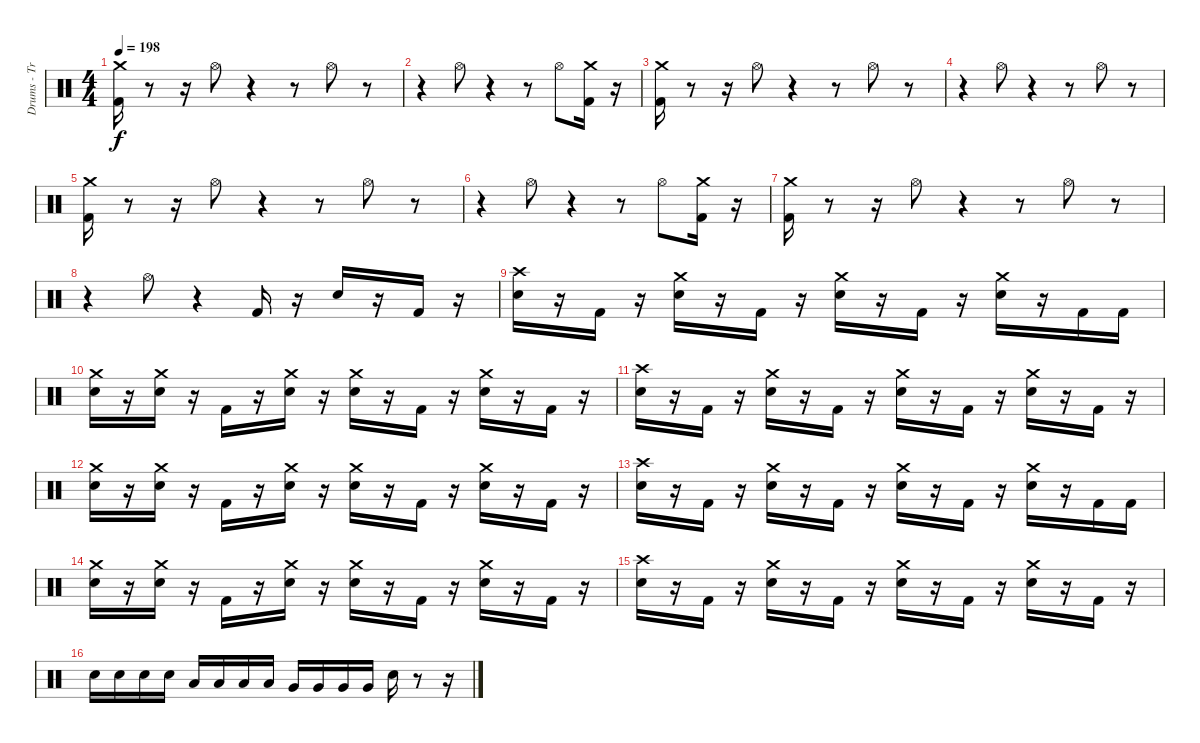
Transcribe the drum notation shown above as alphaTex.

\track ("Drums - Travis" "Drums - Tr") {instrument percussion}
\staff {score}
\articulation defaults
\ts (4 4)
\tempo 198
\clef neutral
\ks c
("Kick (hit) 2" "Crash medium (hit)").16{dy f} r.8 r.16 "Hi-Hat (open)".8 r.4 r.8 "Hi-Hat (open)".8 r.8 |
r.4 "Hi-Hat (open)".8 r.4 r.8 "Hi-Hat (open)".8 ("Kick (hit) 2" "Crash medium (hit)").16 r.16 |
("Kick (hit) 2" "Crash medium (hit)").16 r.8 r.16 "Hi-Hat (open)".8 r.4 r.8 "Hi-Hat (open)".8 r.8 |
r.4 "Hi-Hat (open)".8 r.4 r.8 "Hi-Hat (open)".8 r.8 |
("Kick (hit) 2" "Crash medium (hit)").16 r.8 r.16 "Hi-Hat (open)".8 r.4 r.8 "Hi-Hat (open)".8 r.8 |
r.4 "Hi-Hat (open)".8 r.4 r.8 "Hi-Hat (open)".8 ("Kick (hit) 2" "Crash medium (hit)").16 r.16 |
("Kick (hit) 2" "Crash medium (hit)").16 r.8 r.16 "Hi-Hat (open)".8 r.4 r.8 "Hi-Hat (open)".8 r.8 |
r.4 "Hi-Hat (open)".8 r.4 "Kick (hit) 2".16 r.16 "Electric Snare (hit)".16 r.16 "Kick (hit) 2".16 r.16 |
("Electric Snare (hit)" "Crash high (hit)").16 r.16 "Kick (hit) 2".16 r.16 ("Electric Snare (hit)" "Crash medium (hit)").16 r.16 "Kick (hit) 2".16 r.16 ("Electric Snare (hit)" "Crash medium (hit)").16 r.16 "Kick (hit) 2".16 r.16 ("Electric Snare (hit)" "Crash medium (hit)").16 r.16 "Kick (hit) 2".16 "Kick (hit) 2".16 |
("Electric Snare (hit)" "Crash medium (hit)").16 r.16 ("Electric Snare (hit)" "Crash medium (hit)").16 r.16 "Kick (hit) 2".16 r.16 ("Electric Snare (hit)" "Crash medium (hit)").16 r.16 ("Electric Snare (hit)" "Crash medium (hit)").16 r.16 "Kick (hit) 2".16 r.16 ("Electric Snare (hit)" "Crash medium (hit)").16 r.16 "Kick (hit) 2".16 r.16 |
("Electric Snare (hit)" "Crash high (hit)").16 r.16 "Kick (hit) 2".16 r.16 ("Electric Snare (hit)" "Crash medium (hit)").16 r.16 "Kick (hit) 2".16 r.16 ("Electric Snare (hit)" "Crash medium (hit)").16 r.16 "Kick (hit) 2".16 r.16 ("Electric Snare (hit)" "Crash medium (hit)").16 r.16 "Kick (hit) 2".16 r.16 |
("Electric Snare (hit)" "Crash medium (hit)").16 r.16 ("Electric Snare (hit)" "Crash medium (hit)").16 r.16 "Kick (hit) 2".16 r.16 ("Electric Snare (hit)" "Crash medium (hit)").16 r.16 ("Electric Snare (hit)" "Crash medium (hit)").16 r.16 "Kick (hit) 2".16 r.16 ("Electric Snare (hit)" "Crash medium (hit)").16 r.16 "Kick (hit) 2".16 r.16 |
("Electric Snare (hit)" "Crash high (hit)").16 r.16 "Kick (hit) 2".16 r.16 ("Electric Snare (hit)" "Crash medium (hit)").16 r.16 "Kick (hit) 2".16 r.16 ("Electric Snare (hit)" "Crash medium (hit)").16 r.16 "Kick (hit) 2".16 r.16 ("Electric Snare (hit)" "Crash medium (hit)").16 r.16 "Kick (hit) 2".16 "Kick (hit) 2".16 |
("Electric Snare (hit)" "Crash medium (hit)").16 r.16 ("Electric Snare (hit)" "Crash medium (hit)").16 r.16 "Kick (hit) 2".16 r.16 ("Electric Snare (hit)" "Crash medium (hit)").16 r.16 ("Electric Snare (hit)" "Crash medium (hit)").16 r.16 "Kick (hit) 2".16 r.16 ("Electric Snare (hit)" "Crash medium (hit)").16 r.16 "Kick (hit) 2".16 r.16 |
("Electric Snare (hit)" "Crash high (hit)").16 r.16 "Kick (hit) 2".16 r.16 ("Electric Snare (hit)" "Crash medium (hit)").16 r.16 "Kick (hit) 2".16 r.16 ("Electric Snare (hit)" "Crash medium (hit)").16 r.16 "Kick (hit) 2".16 r.16 ("Electric Snare (hit)" "Crash medium (hit)").16 r.16 "Kick (hit) 2".16 r.16 |
"Electric Snare (hit)".16 "Electric Snare (hit)".16 "Electric Snare (hit)".16 "Electric Snare (hit)".16 "Low Tom (hit)".16 "Low Tom (hit)".16 "Low Tom (hit)".16 "Low Tom (hit)".16 "Very Low Tom (hit)".16 "Very Low Tom (hit)".16 "Very Low Tom (hit)".16 "Very Low Tom (hit)".16 "Electric Snare (hit)".16 r.8 r.16
